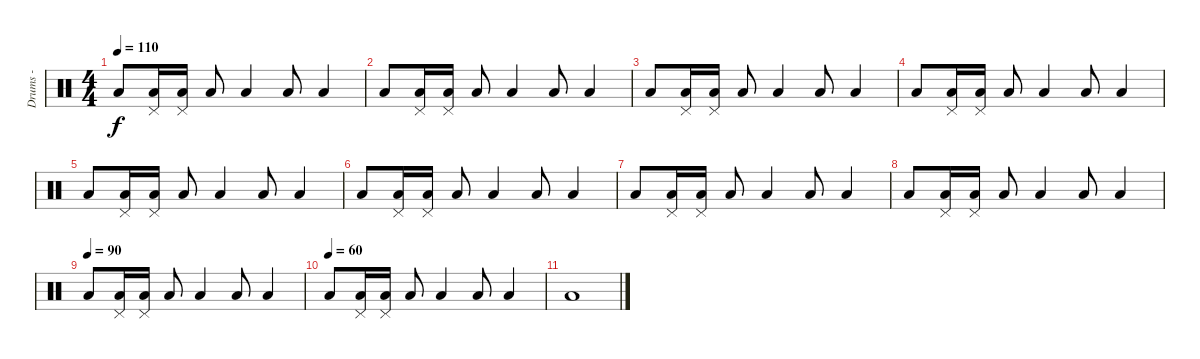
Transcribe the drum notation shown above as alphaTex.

\track ("Drums - " "Drums - ") {instrument percussion}
\staff {score}
\articulation defaults
\ts (4 4)
\tempo 110
\clef neutral
\ks c "Low Tom (hit)".8{dy f}
("Pedal Hi-Hat (hit)" "Low Tom (hit)").16 ("Pedal Hi-Hat (hit)" "Low Tom (hit)").16 "Low Tom (hit)".8 "Low Tom (hit)".4 "Low Tom (hit)".8 "Low Tom (hit)".4 |
"Low Tom (hit)".8 ("Pedal Hi-Hat (hit)" "Low Tom (hit)").16 ("Pedal Hi-Hat (hit)" "Low Tom (hit)").16 "Low Tom (hit)".8 "Low Tom (hit)".4 "Low Tom (hit)".8 "Low Tom (hit)".4 |
"Low Tom (hit)".8 ("Pedal Hi-Hat (hit)" "Low Tom (hit)").16 ("Pedal Hi-Hat (hit)" "Low Tom (hit)").16 "Low Tom (hit)".8 "Low Tom (hit)".4 "Low Tom (hit)".8 "Low Tom (hit)".4 |
"Low Tom (hit)".8 ("Pedal Hi-Hat (hit)" "Low Tom (hit)").16 ("Pedal Hi-Hat (hit)" "Low Tom (hit)").16 "Low Tom (hit)".8 "Low Tom (hit)".4 "Low Tom (hit)".8 "Low Tom (hit)".4 |
"Low Tom (hit)".8 ("Pedal Hi-Hat (hit)" "Low Tom (hit)").16 ("Pedal Hi-Hat (hit)" "Low Tom (hit)").16 "Low Tom (hit)".8 "Low Tom (hit)".4 "Low Tom (hit)".8 "Low Tom (hit)".4 |
"Low Tom (hit)".8 ("Pedal Hi-Hat (hit)" "Low Tom (hit)").16 ("Pedal Hi-Hat (hit)" "Low Tom (hit)").16 "Low Tom (hit)".8 "Low Tom (hit)".4 "Low Tom (hit)".8 "Low Tom (hit)".4 |
"Low Tom (hit)".8 ("Pedal Hi-Hat (hit)" "Low Tom (hit)").16 ("Pedal Hi-Hat (hit)" "Low Tom (hit)").16 "Low Tom (hit)".8 "Low Tom (hit)".4 "Low Tom (hit)".8 "Low Tom (hit)".4 |
"Low Tom (hit)".8 ("Pedal Hi-Hat (hit)" "Low Tom (hit)").16 ("Pedal Hi-Hat (hit)" "Low Tom (hit)").16 "Low Tom (hit)".8 "Low Tom (hit)".4 "Low Tom (hit)".8 "Low Tom (hit)".4 |
\tempo (90)
"Low Tom (hit)".8 ("Pedal Hi-Hat (hit)" "Low Tom (hit)").16 ("Pedal Hi-Hat (hit)" "Low Tom (hit)").16 "Low Tom (hit)".8 "Low Tom (hit)".4 "Low Tom (hit)".8 "Low Tom (hit)".4 |
\tempo (60)
"Low Tom (hit)".8 ("Pedal Hi-Hat (hit)" "Low Tom (hit)").16 ("Pedal Hi-Hat (hit)" "Low Tom (hit)").16 "Low Tom (hit)".8 "Low Tom (hit)".4 "Low Tom (hit)".8 "Low Tom (hit)".4 |
"Low Tom (hit)".1
